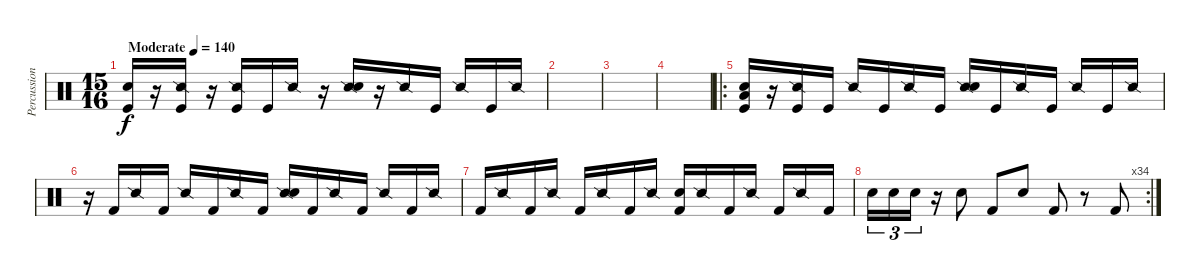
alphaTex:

\track ("Percussion" "Percussion") {instrument percussion}
\staff {score}
\articulation defaults
\ts (15 16)
\tempo (140 "Moderate")
\clef neutral
\ks c
("Snare (hit) 2" "Kick (hit)").16{dy f} r.16 ("Snare (side stick) 2" "Kick (hit)").16 r.16 ("Snare (side stick) 2" "Kick (hit)").16 "Kick (hit)".16 "Snare (side stick) 2".16 r.16 ("Snare (side stick) 2" "Snare (hit) 2").16 r.16 "Snare (side stick) 2".16 "Kick (hit)".16 "Snare (side stick) 2".16 "Kick (hit)".16 "Snare (side stick) 2".16 |
|
|
|
\ro
("Snare (hit) 2" "Low Floor Tom (hit)" "Kick (hit)").16 r.16 ("Snare (side stick) 2" "Kick (hit)").16 "Kick (hit)".16 "Snare (side stick) 2".16 "Kick (hit)".16 "Snare (side stick) 2".16 "Kick (hit)".16 ("Snare (side stick) 2" "Snare (hit) 2").16 "Kick (hit)".16 "Snare (side stick) 2".16 "Kick (hit)".16 "Snare (side stick) 2".16 "Kick (hit)".16 "Snare (side stick) 2".16 |
r.16 "Kick (hit) 2".16 "Snare (side stick) 2".16 "Kick (hit) 2".16 "Snare (side stick) 2".16 "Kick (hit) 2".16 "Snare (side stick) 2".16 "Kick (hit) 2".16 ("Snare (side stick) 2" "Snare (hit) 2").16 "Kick (hit) 2".16 "Snare (side stick) 2".16 "Kick (hit) 2".16 "Snare (side stick) 2".16 "Kick (hit) 2".16 "Snare (side stick) 2".16 |
"Kick (hit) 2".16 "Snare (side stick) 2".16 "Kick (hit) 2".16 "Snare (side stick) 2".16 "Kick (hit) 2".16 "Snare (side stick) 2".16 "Kick (hit) 2".16 "Snare (side stick) 2".16 ("Snare (hit) 2" "Kick (hit) 2").16 "Snare (side stick) 2".16 "Kick (hit) 2".16 "Snare (side stick) 2".16 "Kick (hit) 2".16 "Snare (side stick) 2".16 "Kick (hit) 2".16 |
\rc 34 "Snare (hit) 2".16{tu (3 2)} "Snare (hit) 2".16{tu (3 2)} "Snare (hit) 2".16{tu (3 2)}
r.16 "Snare (hit) 2".8 "Kick (hit) 2".8 "Snare (hit) 2".8 "Kick (hit) 2".8 r.8 "Kick (hit) 2".8
